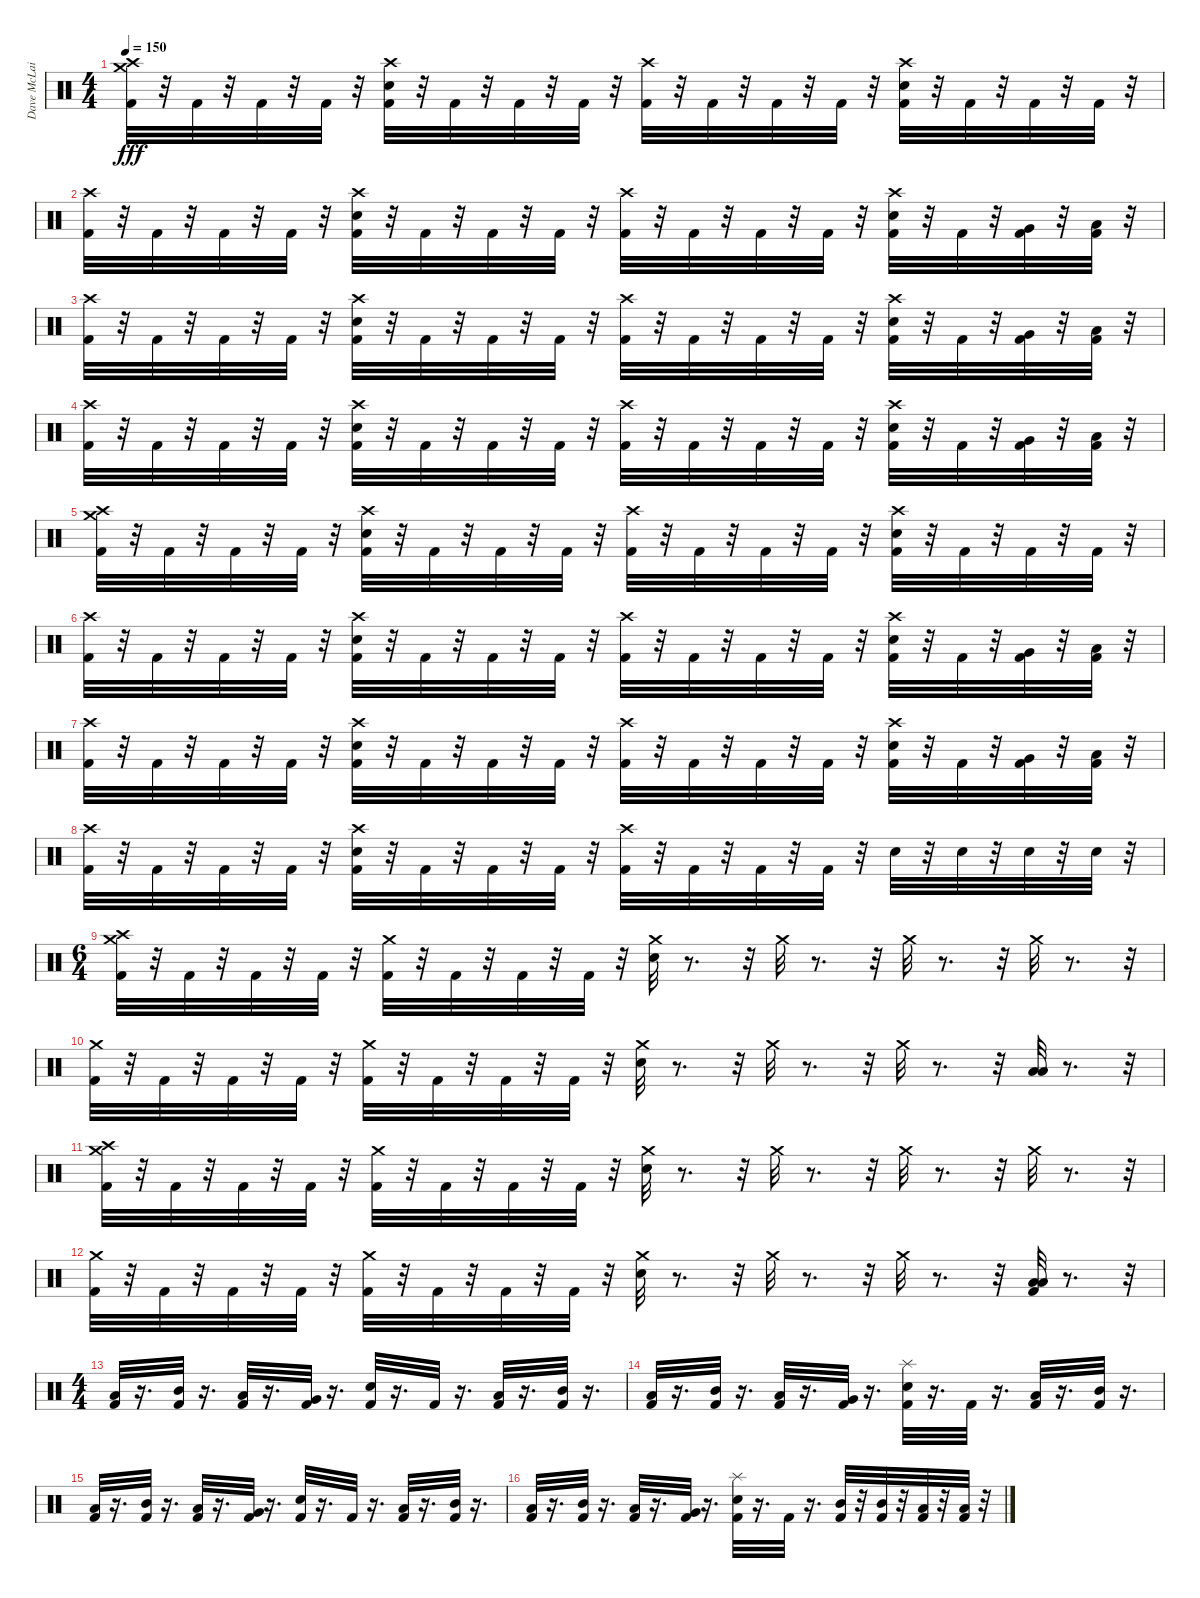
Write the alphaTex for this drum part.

\track ("Dave McLain" "Dave McLai") {instrument percussion}
\staff {score}
\articulation defaults
\ts (4 4)
\tempo 150
\clef neutral
\ks c
("Crash medium (hit)" "Crash high (hit)" "Kick (hit) 2").32{dy fff} r.32 "Kick (hit) 2".32 r.32 "Kick (hit) 2".32 r.32 "Kick (hit) 2".32 r.32 ("Snare (hit) 2" "Crash high (hit)" "Kick (hit) 2").32 r.32 "Kick (hit) 2".32 r.32 "Kick (hit) 2".32 r.32 "Kick (hit) 2".32 r.32 ("Crash high (hit)" "Kick (hit) 2").32 r.32 "Kick (hit) 2".32 r.32 "Kick (hit) 2".32 r.32 "Kick (hit) 2".32 r.32 ("Snare (hit) 2" "Crash high (hit)" "Kick (hit) 2").32 r.32 "Kick (hit) 2".32 r.32 "Kick (hit) 2".32 r.32 "Kick (hit) 2".32 r.32 |
("Crash high (hit)" "Kick (hit) 2").32 r.32 "Kick (hit) 2".32 r.32 "Kick (hit) 2".32 r.32 "Kick (hit) 2".32 r.32 ("Snare (hit) 2" "Crash high (hit)" "Kick (hit) 2").32 r.32 "Kick (hit) 2".32 r.32 "Kick (hit) 2".32 r.32 "Kick (hit) 2".32 r.32 ("Crash high (hit)" "Kick (hit) 2").32 r.32 "Kick (hit) 2".32 r.32 "Kick (hit) 2".32 r.32 "Kick (hit) 2".32 r.32 ("Snare (hit) 2" "Crash high (hit)" "Kick (hit) 2").32 r.32 "Kick (hit) 2".32 r.32 ("Very Low Tom (hit)" "Kick (hit) 2").32 r.32 ("Low Floor Tom (hit)" "Kick (hit) 2").32 r.32 |
("Crash high (hit)" "Kick (hit) 2").32 r.32 "Kick (hit) 2".32 r.32 "Kick (hit) 2".32 r.32 "Kick (hit) 2".32 r.32 ("Snare (hit) 2" "Crash high (hit)" "Kick (hit) 2").32 r.32 "Kick (hit) 2".32 r.32 "Kick (hit) 2".32 r.32 "Kick (hit) 2".32 r.32 ("Crash high (hit)" "Kick (hit) 2").32 r.32 "Kick (hit) 2".32 r.32 "Kick (hit) 2".32 r.32 "Kick (hit) 2".32 r.32 ("Snare (hit) 2" "Crash high (hit)" "Kick (hit) 2").32 r.32 "Kick (hit) 2".32 r.32 ("Very Low Tom (hit)" "Kick (hit) 2").32 r.32 ("Low Floor Tom (hit)" "Kick (hit) 2").32 r.32 |
("Crash high (hit)" "Kick (hit) 2").32 r.32 "Kick (hit) 2".32 r.32 "Kick (hit) 2".32 r.32 "Kick (hit) 2".32 r.32 ("Snare (hit) 2" "Crash high (hit)" "Kick (hit) 2").32 r.32 "Kick (hit) 2".32 r.32 "Kick (hit) 2".32 r.32 "Kick (hit) 2".32 r.32 ("Crash high (hit)" "Kick (hit) 2").32 r.32 "Kick (hit) 2".32 r.32 "Kick (hit) 2".32 r.32 "Kick (hit) 2".32 r.32 ("Snare (hit) 2" "Crash high (hit)" "Kick (hit) 2").32 r.32 "Kick (hit) 2".32 r.32 ("Very Low Tom (hit)" "Kick (hit) 2").32 r.32 ("Low Floor Tom (hit)" "Kick (hit) 2").32 r.32 |
("Crash medium (hit)" "Crash high (hit)" "Kick (hit) 2").32 r.32 "Kick (hit) 2".32 r.32 "Kick (hit) 2".32 r.32 "Kick (hit) 2".32 r.32 ("Snare (hit) 2" "Crash high (hit)" "Kick (hit) 2").32 r.32 "Kick (hit) 2".32 r.32 "Kick (hit) 2".32 r.32 "Kick (hit) 2".32 r.32 ("Crash high (hit)" "Kick (hit) 2").32 r.32 "Kick (hit) 2".32 r.32 "Kick (hit) 2".32 r.32 "Kick (hit) 2".32 r.32 ("Snare (hit) 2" "Crash high (hit)" "Kick (hit) 2").32 r.32 "Kick (hit) 2".32 r.32 "Kick (hit) 2".32 r.32 "Kick (hit) 2".32 r.32 |
("Crash high (hit)" "Kick (hit) 2").32 r.32 "Kick (hit) 2".32 r.32 "Kick (hit) 2".32 r.32 "Kick (hit) 2".32 r.32 ("Snare (hit) 2" "Crash high (hit)" "Kick (hit) 2").32 r.32 "Kick (hit) 2".32 r.32 "Kick (hit) 2".32 r.32 "Kick (hit) 2".32 r.32 ("Crash high (hit)" "Kick (hit) 2").32 r.32 "Kick (hit) 2".32 r.32 "Kick (hit) 2".32 r.32 "Kick (hit) 2".32 r.32 ("Snare (hit) 2" "Crash high (hit)" "Kick (hit) 2").32 r.32 "Kick (hit) 2".32 r.32 ("Very Low Tom (hit)" "Kick (hit) 2").32 r.32 ("Low Floor Tom (hit)" "Kick (hit) 2").32 r.32 |
("Crash high (hit)" "Kick (hit) 2").32 r.32 "Kick (hit) 2".32 r.32 "Kick (hit) 2".32 r.32 "Kick (hit) 2".32 r.32 ("Snare (hit) 2" "Crash high (hit)" "Kick (hit) 2").32 r.32 "Kick (hit) 2".32 r.32 "Kick (hit) 2".32 r.32 "Kick (hit) 2".32 r.32 ("Crash high (hit)" "Kick (hit) 2").32 r.32 "Kick (hit) 2".32 r.32 "Kick (hit) 2".32 r.32 "Kick (hit) 2".32 r.32 ("Snare (hit) 2" "Crash high (hit)" "Kick (hit) 2").32 r.32 "Kick (hit) 2".32 r.32 ("Very Low Tom (hit)" "Kick (hit) 2").32 r.32 ("Low Floor Tom (hit)" "Kick (hit) 2").32 r.32 |
("Crash high (hit)" "Kick (hit) 2").32 r.32 "Kick (hit) 2".32 r.32 "Kick (hit) 2".32 r.32 "Kick (hit) 2".32 r.32 ("Snare (hit) 2" "Crash high (hit)" "Kick (hit) 2").32 r.32 "Kick (hit) 2".32 r.32 "Kick (hit) 2".32 r.32 "Kick (hit) 2".32 r.32 ("Crash high (hit)" "Kick (hit) 2").32 r.32 "Kick (hit) 2".32 r.32 "Kick (hit) 2".32 r.32 "Kick (hit) 2".32 r.32 "Snare (hit) 2".32 r.32 "Snare (hit) 2".32 r.32 "Snare (hit) 2".32 r.32 "Snare (hit) 2".32 r.32 |
\ts (6 4)
("Crash medium (hit)" "Crash high (hit)" "Kick (hit) 2").32 r.32 "Kick (hit) 2".32 r.32 "Kick (hit) 2".32 r.32 "Kick (hit) 2".32 r.32 ("Crash medium (hit)" "Kick (hit) 2").32 r.32 "Kick (hit) 2".32 r.32 "Kick (hit) 2".32 r.32 "Kick (hit) 2".32 r.32 ("Snare (hit) 2" "Crash medium (hit)").32 r.8{d} r.32 "Crash medium (hit)".32 r.8{d} r.32 "Crash medium (hit)".32 r.8{d} r.32 "Crash medium (hit)".32 r.8{d} r.32 |
("Kick (hit) 2" "Crash medium (hit)").32 r.32 "Kick (hit) 2".32 r.32 "Kick (hit) 2".32 r.32 "Kick (hit) 2".32 r.32 ("Kick (hit) 2" "Crash medium (hit)").32 r.32 "Kick (hit) 2".32 r.32 "Kick (hit) 2".32 r.32 "Kick (hit) 2".32 r.32 ("Snare (hit) 2" "Crash medium (hit)").32 r.8{d} r.32 "Crash medium (hit)".32 r.8{d} r.32 "Crash medium (hit)".32 r.8{d} r.32 ("Low Tom (hit)" "Low Floor Tom (hit)").32 r.8{d} r.32 |
("Crash medium (hit)" "Crash high (hit)" "Kick (hit) 2").32 r.32 "Kick (hit) 2".32 r.32 "Kick (hit) 2".32 r.32 "Kick (hit) 2".32 r.32 ("Crash medium (hit)" "Kick (hit) 2").32 r.32 "Kick (hit) 2".32 r.32 "Kick (hit) 2".32 r.32 "Kick (hit) 2".32 r.32 ("Snare (hit) 2" "Crash medium (hit)").32 r.8{d} r.32 "Crash medium (hit)".32 r.8{d} r.32 "Crash medium (hit)".32 r.8{d} r.32 "Crash medium (hit)".32 r.8{d} r.32 |
("Kick (hit) 2" "Crash medium (hit)").32 r.32 "Kick (hit) 2".32 r.32 "Kick (hit) 2".32 r.32 "Kick (hit) 2".32 r.32 ("Kick (hit) 2" "Crash medium (hit)").32 r.32 "Kick (hit) 2".32 r.32 "Kick (hit) 2".32 r.32 "Kick (hit) 2".32 r.32 ("Snare (hit) 2" "Crash medium (hit)").32 r.8{d} r.32 "Crash medium (hit)".32 r.8{d} r.32 "Crash medium (hit)".32 r.8{d} r.32 ("Low Tom (hit)" "Low Floor Tom (hit)" "Kick (hit) 2").32 r.8{d} r.32 |
\ts (4 4)
("Low Tom (hit)" "Kick (hit) 2").32 r.16{d} ("Mid Tom (hit)" "Kick (hit) 2").32 r.16{d} ("Low Tom (hit)" "Kick (hit) 2").32 r.16{d} ("Very Low Tom (hit)" "Kick (hit) 2").32 r.16{d} ("Snare (hit) 2" "Kick (hit) 2").32 r.16{d} "Kick (hit) 2".32 r.16{d} ("Low Tom (hit)" "Kick (hit) 2").32 r.16{d} ("Mid Tom (hit)" "Kick (hit) 2").32 r.16{d} |
("Low Tom (hit)" "Kick (hit) 2").32 r.16{d} ("Mid Tom (hit)" "Kick (hit) 2").32 r.16{d} ("Low Tom (hit)" "Kick (hit) 2").32 r.16{d} ("Very Low Tom (hit)" "Kick (hit) 2").32 r.16{d} ("Splash (hit)" "Snare (hit) 2" "Kick (hit) 2").32 r.16{d} "Kick (hit) 2".32 r.16{d} ("Low Tom (hit)" "Kick (hit) 2").32 r.16{d} ("Mid Tom (hit)" "Kick (hit) 2").32 r.16{d} |
("Low Tom (hit)" "Kick (hit) 2").32 r.16{d} ("Mid Tom (hit)" "Kick (hit) 2").32 r.16{d} ("Low Tom (hit)" "Kick (hit) 2").32 r.16{d} ("Very Low Tom (hit)" "Kick (hit) 2").32 r.16{d} ("Snare (hit) 2" "Kick (hit) 2").32 r.16{d} "Kick (hit) 2".32 r.16{d} ("Low Tom (hit)" "Kick (hit) 2").32 r.16{d} ("Mid Tom (hit)" "Kick (hit) 2").32 r.16{d} |
("Low Tom (hit)" "Kick (hit) 2").32 r.16{d} ("Mid Tom (hit)" "Kick (hit) 2").32 r.16{d} ("Low Tom (hit)" "Kick (hit) 2").32 r.16{d} ("Very Low Tom (hit)" "Kick (hit) 2").32 r.16{d} ("Splash (hit)" "Snare (hit) 2" "Kick (hit) 2").32 r.16{d} "Kick (hit) 2".32 r.16{d} ("Mid Tom (hit)" "Kick (hit) 2").32 r.32 ("Mid Tom (hit)" "Kick (hit) 2").32 r.32 ("Low Tom (hit)" "Kick (hit) 2").32 r.32 ("Low Tom (hit)" "Kick (hit) 2").32 r.32
